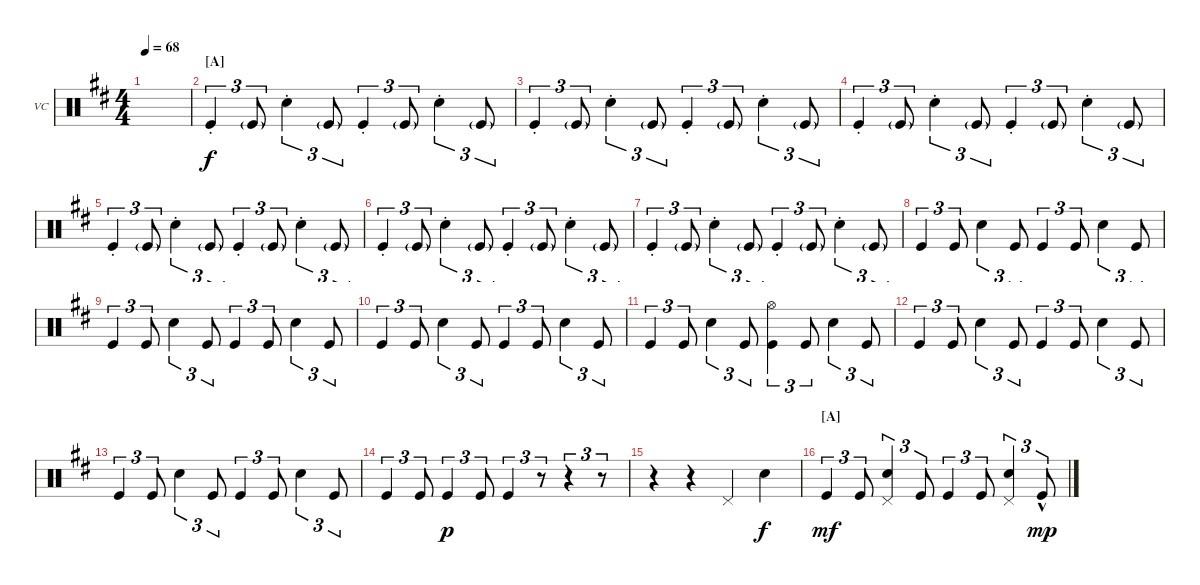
\defaultSystemsLayout 4
\bracketExtendMode nobrackets
\firstSystemTrackNameOrientation horizontal
\otherSystemsTrackNameOrientation horizontal
\track ("Vinnie Colaiuta" "VC") {instrument percussion}
\staff {score}
\articulation defaults
\ts (4 4)
\tempo 68
\clef neutral
\ks bminor
|
\section ("A" "")
"Kick (hit)"{st}.4{tu (3 2)} "Kick (hit)"{g}.8{tu (3 2)} "Snare (hit) 2"{st}.4{tu (3 2)} "Kick (hit)"{g}.8{tu (3 2)} "Kick (hit)"{st}.4{tu (3 2)} "Kick (hit)"{g}.8{tu (3 2)} "Snare (hit) 2"{st}.4{tu (3 2)} "Kick (hit)"{g}.8{tu (3 2)} |
"Kick (hit)"{st}.4{tu (3 2)} "Kick (hit)"{g}.8{tu (3 2)} "Snare (hit) 2"{st}.4{tu (3 2)} "Kick (hit)"{g}.8{tu (3 2)} "Kick (hit)"{st}.4{tu (3 2)} "Kick (hit)"{g}.8{tu (3 2)} "Snare (hit) 2"{st}.4{tu (3 2)} "Kick (hit)"{g}.8{tu (3 2)} |
"Kick (hit)"{st}.4{tu (3 2)} "Kick (hit)"{g}.8{tu (3 2)} "Snare (hit) 2"{st}.4{tu (3 2)} "Kick (hit)"{g}.8{tu (3 2)} "Kick (hit)"{st}.4{tu (3 2)} "Kick (hit)"{g}.8{tu (3 2)} "Snare (hit) 2"{st}.4{tu (3 2)} "Kick (hit)"{g}.8{tu (3 2)} |
"Kick (hit)"{st}.4{tu (3 2)} "Kick (hit)"{g}.8{tu (3 2)} "Snare (hit) 2"{st}.4{tu (3 2)} "Kick (hit)"{g}.8{tu (3 2)} "Kick (hit)"{st}.4{tu (3 2)} "Kick (hit)"{g}.8{tu (3 2)} "Snare (hit) 2"{st}.4{tu (3 2)} "Kick (hit)"{g}.8{tu (3 2)} |
"Kick (hit)"{st}.4{tu (3 2)} "Kick (hit)"{g}.8{tu (3 2)} "Snare (hit) 2"{st}.4{tu (3 2)} "Kick (hit)"{g}.8{tu (3 2)} "Kick (hit)"{st}.4{tu (3 2)} "Kick (hit)"{g}.8{tu (3 2)} "Snare (hit) 2"{st}.4{tu (3 2)} "Kick (hit)"{g}.8{tu (3 2)} |
"Kick (hit)"{st}.4{tu (3 2)} "Kick (hit)"{g}.8{tu (3 2)} "Snare (hit) 2"{st}.4{tu (3 2)} "Kick (hit)"{g}.8{tu (3 2)} "Kick (hit)"{st}.4{tu (3 2)} "Kick (hit)"{g}.8{tu (3 2)} "Snare (hit) 2"{st}.4{tu (3 2)} "Kick (hit)"{g}.8{tu (3 2)} |
"Kick (hit)".4{tu (3 2)} "Kick (hit)".8{tu (3 2)} "Snare (hit) 2".4{tu (3 2)} "Kick (hit)".8{tu (3 2)} "Kick (hit)".4{tu (3 2)} "Kick (hit)".8{tu (3 2)} "Snare (hit) 2".4{tu (3 2)} "Kick (hit)".8{tu (3 2)} |
"Kick (hit)".4{tu (3 2)} "Kick (hit)".8{tu (3 2)} "Snare (hit) 2".4{tu (3 2)} "Kick (hit)".8{tu (3 2)} "Kick (hit)".4{tu (3 2)} "Kick (hit)".8{tu (3 2)} "Snare (hit) 2".4{tu (3 2)} "Kick (hit)".8{tu (3 2)} |
"Kick (hit)".4{tu (3 2)} "Kick (hit)".8{tu (3 2)} "Snare (hit) 2".4{tu (3 2)} "Kick (hit)".8{tu (3 2)} "Kick (hit)".4{tu (3 2)} "Kick (hit)".8{tu (3 2)} "Snare (hit) 2".4{tu (3 2)} "Kick (hit)".8{tu (3 2)} |
"Kick (hit)".4{tu (3 2)} "Kick (hit)".8{tu (3 2)} "Snare (hit) 2".4{tu (3 2)} "Kick (hit)".8{tu (3 2)} ("Kick (hit)" "Hi-Hat (open)").4{tu (3 2)} "Kick (hit)".8{tu (3 2)} "Snare (hit) 2".4{tu (3 2)} "Kick (hit)".8{tu (3 2)} |
"Kick (hit)".4{tu (3 2)} "Kick (hit)".8{tu (3 2)} "Snare (hit) 2".4{tu (3 2)} "Kick (hit)".8{tu (3 2)} "Kick (hit)".4{tu (3 2)} "Kick (hit)".8{tu (3 2)} "Snare (hit) 2".4{tu (3 2)} "Kick (hit)".8{tu (3 2)} |
"Kick (hit)".4{tu (3 2)} "Kick (hit)".8{tu (3 2)} "Snare (hit) 2".4{tu (3 2)} "Kick (hit)".8{tu (3 2)} "Kick (hit)".4{tu (3 2)} "Kick (hit)".8{tu (3 2)} "Snare (hit) 2".4{tu (3 2)} "Kick (hit)".8{tu (3 2)} |
"Kick (hit)".4{tu (3 2)} "Kick (hit)".8{tu (3 2)} "Kick (hit)".4{tu (3 2) dy p} "Kick (hit)".8{tu (3 2)} "Kick (hit)".4{tu (3 2)} r.8{tu (3 2)} r.4{tu (3 2)} r.8{tu (3 2)} |
r.4 r.4 "Pedal Hi-Hat (hit)".4 "Snare (hit) 2".4{dy f} |
\section ("A" "")
"Kick (hit)".4{tu (3 2) dy mf} "Kick (hit)".8{tu (3 2)} ("Snare (hit) 2" "Pedal Hi-Hat (hit)").4{tu (3 2)} "Kick (hit)".8{tu (3 2)} "Kick (hit)".4{tu (3 2)} "Kick (hit)".8{tu (3 2)} ("Snare (hit) 2" "Pedal Hi-Hat (hit)").4{tu (3 2)} "Kick (hit)"{hac}.8{tu (3 2) dy mp}
